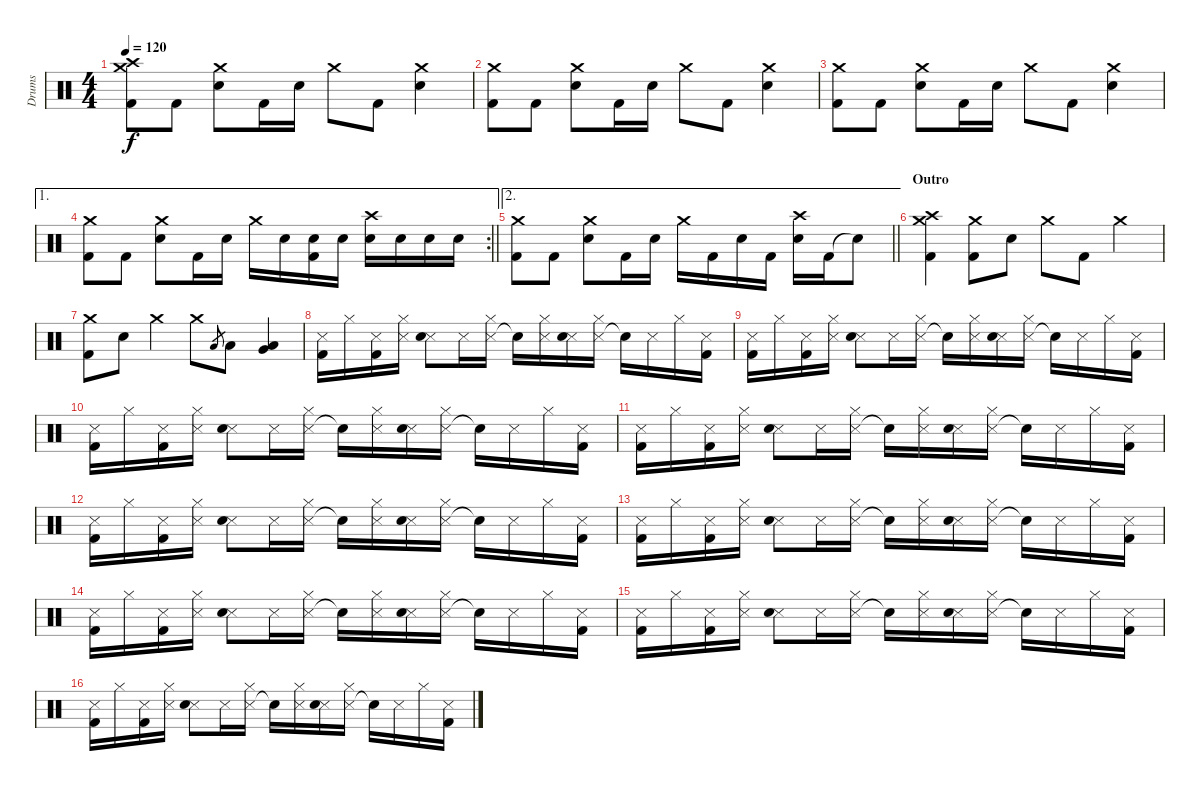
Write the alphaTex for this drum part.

\track ("Drums" "Drums") {instrument percussion}
\staff {score}
\articulation defaults
\ts (4 4)
\tempo 120
\clef neutral
\ks c
("Crash medium (hit)" "Crash high (hit)" "Kick (hit) 2").8{dy f} "Kick (hit) 2".8 ("Crash medium (hit)" "Electric Snare (hit)").8 "Kick (hit) 2".16 "Electric Snare (hit)".16 "Crash medium (hit)".8 "Kick (hit) 2".8 ("Crash medium (hit)" "Electric Snare (hit)").4 |
("Crash medium (hit)" "Kick (hit) 2").8 "Kick (hit) 2".8 ("Crash medium (hit)" "Electric Snare (hit)").8 "Kick (hit) 2".16 "Electric Snare (hit)".16 "Crash medium (hit)".8 "Kick (hit) 2".8 ("Crash medium (hit)" "Electric Snare (hit)").4 |
("Crash medium (hit)" "Kick (hit) 2").8 "Kick (hit) 2".8 ("Crash medium (hit)" "Electric Snare (hit)").8 "Kick (hit) 2".16 "Electric Snare (hit)".16 "Crash medium (hit)".8 "Kick (hit) 2".8 ("Crash medium (hit)" "Electric Snare (hit)").4 |
\ae 1
\rc 2
\barLineRight lightlight
("Crash medium (hit)" "Kick (hit) 2").8 "Kick (hit) 2".8 ("Crash medium (hit)" "Electric Snare (hit)").8 "Kick (hit) 2".16 "Electric Snare (hit)".16 "Crash medium (hit)".16 "Electric Snare (hit)".16 ("Electric Snare (hit)" "Kick (hit) 2").16 "Electric Snare (hit)".16 ("Crash high (hit)" "Electric Snare (hit)").16 "Electric Snare (hit)".16 "Electric Snare (hit)".16 "Electric Snare (hit)".16 |
\ae 2
\barLineRight lightlight
("Crash medium (hit)" "Kick (hit) 2").8 "Kick (hit) 2".8 ("Crash medium (hit)" "Electric Snare (hit)").8 "Kick (hit) 2".16 "Electric Snare (hit)".16 "Crash medium (hit)".16 "Kick (hit) 2".16 "Electric Snare (hit)".16 "Kick (hit) 2".16 ("Crash high (hit)" "Electric Snare (hit)").16 "Kick (hit) 2".16 "Snare (hit)"{t}.8 |
\section ("" "Outro")
("Crash medium (hit)" "Crash high (hit)" "Kick (hit) 2").4 ("Crash medium (hit)" "Kick (hit) 2").8 "Electric Snare (hit)".8 "Crash medium (hit)".8 "Kick (hit) 2".8 "Crash medium (hit)".4 |
("Crash medium (hit)" "Kick (hit) 2").8 "Electric Snare (hit)".8 "Crash medium (hit)".4 "Crash medium (hit)".8 "Low Tom (hit)".8{gr} "Low Tom (hit)".8 ("Very Low Tom (hit)" "Low Floor Tom (hit)").4 |
("Snare (side stick) 3" "Kick (hit) 2").16{volume 11} "Hi-Hat (closed)".16 ("Snare (side stick) 3" "Kick (hit) 2").16 ("Snare (side stick) 3" "Hi-Hat (closed)").16 ("Snare (side stick) 3" "Snare (hit) 2").8 "Snare (side stick) 3".16 ("Snare (side stick) 3" "Hi-Hat (closed)").16 "Snare (hit)"{t}.16 ("Snare (side stick) 3" "Hi-Hat (closed)").16 ("Snare (side stick) 3" "Snare (hit) 2").16 ("Snare (side stick) 3" "Hi-Hat (closed)").16 "Snare (hit)"{t}.16 "Snare (side stick) 3".16 "Hi-Hat (closed)".16 ("Snare (side stick) 3" "Kick (hit) 2").16 |
("Snare (side stick) 3" "Kick (hit) 2").16 "Hi-Hat (closed)".16 ("Snare (side stick) 3" "Kick (hit) 2").16 ("Snare (side stick) 3" "Hi-Hat (closed)").16 ("Snare (side stick) 3" "Snare (hit) 2").8 "Snare (side stick) 3".16 ("Snare (side stick) 3" "Hi-Hat (closed)").16 "Snare (hit)"{t}.16 ("Snare (side stick) 3" "Hi-Hat (closed)").16 ("Snare (side stick) 3" "Snare (hit) 2").16 ("Snare (side stick) 3" "Hi-Hat (closed)").16 "Snare (hit)"{t}.16 "Snare (side stick) 3".16 "Hi-Hat (closed)".16 ("Snare (side stick) 3" "Kick (hit) 2").16 |
("Snare (side stick) 3" "Kick (hit) 2").16 "Hi-Hat (closed)".16 ("Snare (side stick) 3" "Kick (hit) 2").16 ("Snare (side stick) 3" "Hi-Hat (closed)").16 ("Snare (side stick) 3" "Snare (hit) 2").8 "Snare (side stick) 3".16 ("Snare (side stick) 3" "Hi-Hat (closed)").16 "Snare (hit)"{t}.16 ("Snare (side stick) 3" "Hi-Hat (closed)").16 ("Snare (side stick) 3" "Snare (hit) 2").16 ("Snare (side stick) 3" "Hi-Hat (closed)").16 "Snare (hit)"{t}.16 "Snare (side stick) 3".16 "Hi-Hat (closed)".16 ("Snare (side stick) 3" "Kick (hit) 2").16 |
("Snare (side stick) 3" "Kick (hit) 2").16 "Hi-Hat (closed)".16 ("Snare (side stick) 3" "Kick (hit) 2").16 ("Snare (side stick) 3" "Hi-Hat (closed)").16 ("Snare (side stick) 3" "Snare (hit) 2").8 "Snare (side stick) 3".16 ("Snare (side stick) 3" "Hi-Hat (closed)").16 "Snare (hit)"{t}.16 ("Snare (side stick) 3" "Hi-Hat (closed)").16 ("Snare (side stick) 3" "Snare (hit) 2").16 ("Snare (side stick) 3" "Hi-Hat (closed)").16 "Snare (hit)"{t}.16 "Snare (side stick) 3".16 "Hi-Hat (closed)".16 ("Snare (side stick) 3" "Kick (hit) 2").16 |
("Snare (side stick) 3" "Kick (hit) 2").16 "Hi-Hat (closed)".16 ("Snare (side stick) 3" "Kick (hit) 2").16 ("Snare (side stick) 3" "Hi-Hat (closed)").16 ("Snare (side stick) 3" "Snare (hit) 2").8 "Snare (side stick) 3".16 ("Snare (side stick) 3" "Hi-Hat (closed)").16 "Snare (hit)"{t}.16 ("Snare (side stick) 3" "Hi-Hat (closed)").16 ("Snare (side stick) 3" "Snare (hit) 2").16 ("Snare (side stick) 3" "Hi-Hat (closed)").16 "Snare (hit)"{t}.16 "Snare (side stick) 3".16 "Hi-Hat (closed)".16 ("Snare (side stick) 3" "Kick (hit) 2").16 |
("Snare (side stick) 3" "Kick (hit) 2").16 "Hi-Hat (closed)".16 ("Snare (side stick) 3" "Kick (hit) 2").16 ("Snare (side stick) 3" "Hi-Hat (closed)").16 ("Snare (side stick) 3" "Snare (hit) 2").8 "Snare (side stick) 3".16 ("Snare (side stick) 3" "Hi-Hat (closed)").16 "Snare (hit)"{t}.16 ("Snare (side stick) 3" "Hi-Hat (closed)").16 ("Snare (side stick) 3" "Snare (hit) 2").16 ("Snare (side stick) 3" "Hi-Hat (closed)").16 "Snare (hit)"{t}.16 "Snare (side stick) 3".16 "Hi-Hat (closed)".16 ("Snare (side stick) 3" "Kick (hit) 2").16 |
("Snare (side stick) 3" "Kick (hit) 2").16{volume 3} "Hi-Hat (closed)".16 ("Snare (side stick) 3" "Kick (hit) 2").16 ("Snare (side stick) 3" "Hi-Hat (closed)").16 ("Snare (side stick) 3" "Snare (hit) 2").8 "Snare (side stick) 3".16 ("Snare (side stick) 3" "Hi-Hat (closed)").16 "Snare (hit)"{t}.16 ("Snare (side stick) 3" "Hi-Hat (closed)").16 ("Snare (side stick) 3" "Snare (hit) 2").16 ("Snare (side stick) 3" "Hi-Hat (closed)").16 "Snare (hit)"{t}.16 "Snare (side stick) 3".16 "Hi-Hat (closed)".16 ("Snare (side stick) 3" "Kick (hit) 2").16 |
("Snare (side stick) 3" "Kick (hit) 2").16 "Hi-Hat (closed)".16 ("Snare (side stick) 3" "Kick (hit) 2").16 ("Snare (side stick) 3" "Hi-Hat (closed)").16 ("Snare (side stick) 3" "Snare (hit) 2").8 "Snare (side stick) 3".16 ("Snare (side stick) 3" "Hi-Hat (closed)").16 "Snare (hit)"{t}.16 ("Snare (side stick) 3" "Hi-Hat (closed)").16 ("Snare (side stick) 3" "Snare (hit) 2").16 ("Snare (side stick) 3" "Hi-Hat (closed)").16 "Snare (hit)"{t}.16 "Snare (side stick) 3".16 "Hi-Hat (closed)".16 ("Snare (side stick) 3" "Kick (hit) 2").16 |
("Snare (side stick) 3" "Kick (hit) 2").16 "Hi-Hat (closed)".16 ("Snare (side stick) 3" "Kick (hit) 2").16 ("Snare (side stick) 3" "Hi-Hat (closed)").16 ("Snare (side stick) 3" "Snare (hit) 2").8 "Snare (side stick) 3".16 ("Snare (side stick) 3" "Hi-Hat (closed)").16 "Snare (hit)"{t}.16 ("Snare (side stick) 3" "Hi-Hat (closed)").16 ("Snare (side stick) 3" "Snare (hit) 2").16 ("Snare (side stick) 3" "Hi-Hat (closed)").16 "Snare (hit)"{t}.16 "Snare (side stick) 3".16 "Hi-Hat (closed)".16 ("Snare (side stick) 3" "Kick (hit) 2").16
